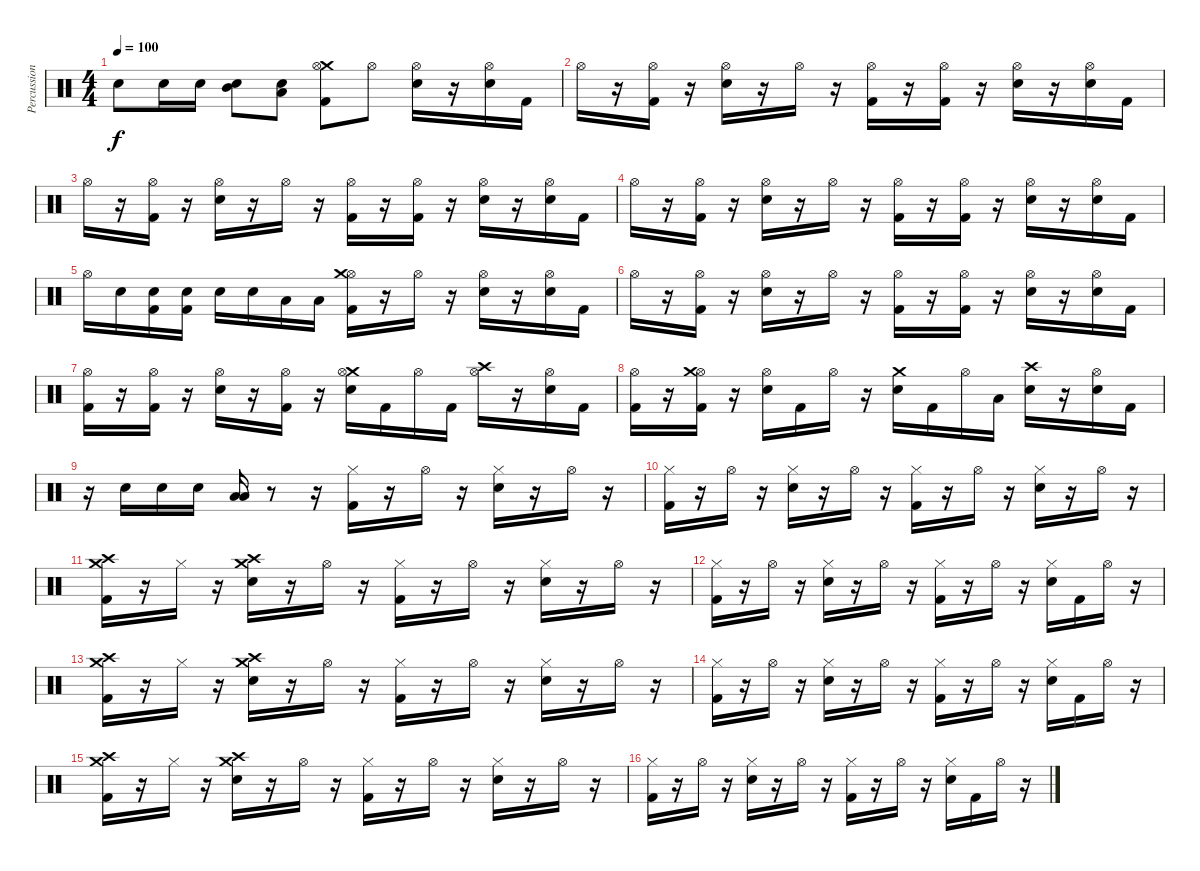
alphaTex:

\track ("Percussion" "Percussion") {instrument percussion}
\staff {score}
\articulation defaults
\ts (4 4)
\tempo 100
\clef neutral
\ks c "Snare (hit) 2".8{dy f} "Snare (hit) 2".16 "Snare (hit) 2".16
("Mid Tom (hit)" "Snare (hit) 2").8 ("Snare (hit) 2" "Low Tom (hit)").8 ("Crash medium (hit)" "Hi-Hat (open)" "Kick (hit) 2").8 "Hi-Hat (open)".8 ("Hi-Hat (open)" "Snare (hit) 2").16 r.16 ("Hi-Hat (open)" "Snare (hit) 2").16 "Kick (hit) 2".16 |
"Hi-Hat (open)".16 r.16 ("Hi-Hat (open)" "Kick (hit) 2").16 r.16 ("Hi-Hat (open)" "Snare (hit) 2").16 r.16 "Hi-Hat (open)".16 r.16 ("Hi-Hat (open)" "Kick (hit) 2").16 r.16 ("Hi-Hat (open)" "Kick (hit) 2").16 r.16 ("Hi-Hat (open)" "Snare (hit) 2").16 r.16 ("Hi-Hat (open)" "Snare (hit) 2").16 "Kick (hit) 2".16 |
"Hi-Hat (open)".16 r.16 ("Hi-Hat (open)" "Kick (hit) 2").16 r.16 ("Hi-Hat (open)" "Snare (hit) 2").16 r.16 "Hi-Hat (open)".16 r.16 ("Hi-Hat (open)" "Kick (hit) 2").16 r.16 ("Hi-Hat (open)" "Kick (hit) 2").16 r.16 ("Hi-Hat (open)" "Snare (hit) 2").16 r.16 ("Hi-Hat (open)" "Snare (hit) 2").16 "Kick (hit) 2".16 |
"Hi-Hat (open)".16 r.16 ("Hi-Hat (open)" "Kick (hit) 2").16 r.16 ("Hi-Hat (open)" "Snare (hit) 2").16 r.16 "Hi-Hat (open)".16 r.16 ("Hi-Hat (open)" "Kick (hit) 2").16 r.16 ("Hi-Hat (open)" "Kick (hit) 2").16 r.16 ("Hi-Hat (open)" "Snare (hit) 2").16 r.16 ("Hi-Hat (open)" "Snare (hit) 2").16 "Kick (hit) 2".16 |
"Hi-Hat (open)".16 "Snare (hit) 2".16 ("Snare (hit) 2" "Kick (hit) 2").16 ("Snare (hit) 2" "Kick (hit) 2").16 "Snare (hit) 2".16 "Snare (hit) 2".16 "Low Tom (hit)".16 "Low Tom (hit)".16 ("Hi-Hat (open)" "Crash medium (hit)" "Kick (hit) 2").16 r.16 "Hi-Hat (open)".16 r.16 ("Hi-Hat (open)" "Snare (hit) 2").16 r.16 ("Hi-Hat (open)" "Snare (hit) 2").16 "Kick (hit) 2".16 |
"Hi-Hat (open)".16 r.16 ("Hi-Hat (open)" "Kick (hit) 2").16 r.16 ("Hi-Hat (open)" "Snare (hit) 2").16 r.16 "Hi-Hat (open)".16 r.16 ("Hi-Hat (open)" "Kick (hit) 2").16 r.16 ("Hi-Hat (open)" "Kick (hit) 2").16 r.16 ("Hi-Hat (open)" "Snare (hit) 2").16 r.16 ("Hi-Hat (open)" "Snare (hit) 2").16 "Kick (hit) 2".16 |
("Hi-Hat (open)" "Kick (hit) 2").16 r.16 ("Hi-Hat (open)" "Kick (hit) 2").16 r.16 ("Hi-Hat (open)" "Snare (hit) 2").16 r.16 ("Hi-Hat (open)" "Kick (hit) 2").16 r.16 ("Crash medium (hit)" "Hi-Hat (open)" "Snare (hit) 2").16 "Kick (hit) 2".16 "Hi-Hat (open)".16 "Kick (hit) 2".16 ("Hi-Hat (open)" "Crash high (hit)").16 r.16 ("Hi-Hat (open)" "Snare (hit) 2").16 "Kick (hit) 2".16 |
("Hi-Hat (open)" "Kick (hit) 2").16 r.16 ("Hi-Hat (open)" "Crash medium (hit)" "Kick (hit) 2").16 r.16 ("Hi-Hat (open)" "Snare (hit) 2").16 "Kick (hit) 2".16 "Hi-Hat (open)".16 r.16 ("Crash medium (hit)" "Snare (hit) 2").16 "Kick (hit) 2".16 "Hi-Hat (open)".16 "Low Tom (hit)".16 ("Crash high (hit)" "Snare (hit) 2").16 r.16 ("Hi-Hat (open)" "Snare (hit) 2").16 "Kick (hit) 2".16 |
r.16 "Snare (hit) 2".16 "Snare (hit) 2".16 "Snare (hit) 2".16 ("Low Tom (hit)" "Low Tom (hit)").16 r.8 r.16 ("Hi-Hat (closed)" "Kick (hit) 2").16 r.16 "Hi-Hat (open)".16 r.16 ("Hi-Hat (closed)" "Snare (hit) 2").16 r.16 "Hi-Hat (open)".16 r.16 |
("Hi-Hat (closed)" "Kick (hit) 2").16 r.16 "Hi-Hat (open)".16 r.16 ("Hi-Hat (closed)" "Snare (hit) 2").16 r.16 "Hi-Hat (open)".16 r.16 ("Hi-Hat (closed)" "Kick (hit) 2").16 r.16 "Hi-Hat (open)".16 r.16 ("Hi-Hat (closed)" "Snare (hit) 2").16 r.16 "Hi-Hat (open)".16 r.16 |
("Crash medium (hit)" "Crash high (hit)" "Kick (hit) 2").16 r.16 "Hi-Hat (closed)".16 r.16 ("Crash medium (hit)" "Crash high (hit)" "Snare (hit) 2").16 r.16 "Hi-Hat (open)".16 r.16 ("Hi-Hat (closed)" "Kick (hit) 2").16 r.16 "Hi-Hat (open)".16 r.16 ("Hi-Hat (closed)" "Snare (hit) 2").16 r.16 "Hi-Hat (open)".16 r.16 |
("Hi-Hat (closed)" "Kick (hit) 2").16 r.16 "Hi-Hat (open)".16 r.16 ("Hi-Hat (closed)" "Snare (hit) 2").16 r.16 "Hi-Hat (open)".16 r.16 ("Hi-Hat (closed)" "Kick (hit) 2").16 r.16 "Hi-Hat (open)".16 r.16 ("Hi-Hat (closed)" "Snare (hit) 2").16 "Kick (hit) 2".16 "Hi-Hat (open)".16 r.16 |
("Crash medium (hit)" "Crash high (hit)" "Kick (hit) 2").16 r.16 "Hi-Hat (closed)".16 r.16 ("Crash medium (hit)" "Crash high (hit)" "Snare (hit) 2").16 r.16 "Hi-Hat (open)".16 r.16 ("Hi-Hat (closed)" "Kick (hit) 2").16 r.16 "Hi-Hat (open)".16 r.16 ("Hi-Hat (closed)" "Snare (hit) 2").16 r.16 "Hi-Hat (open)".16 r.16 |
("Hi-Hat (closed)" "Kick (hit) 2").16 r.16 "Hi-Hat (open)".16 r.16 ("Hi-Hat (closed)" "Snare (hit) 2").16 r.16 "Hi-Hat (open)".16 r.16 ("Hi-Hat (closed)" "Kick (hit) 2").16 r.16 "Hi-Hat (open)".16 r.16 ("Hi-Hat (closed)" "Snare (hit) 2").16 "Kick (hit) 2".16 "Hi-Hat (open)".16 r.16 |
("Crash medium (hit)" "Crash high (hit)" "Kick (hit) 2").16 r.16 "Hi-Hat (closed)".16 r.16 ("Crash medium (hit)" "Crash high (hit)" "Snare (hit) 2").16 r.16 "Hi-Hat (open)".16 r.16 ("Hi-Hat (closed)" "Kick (hit) 2").16 r.16 "Hi-Hat (open)".16 r.16 ("Hi-Hat (closed)" "Snare (hit) 2").16 r.16 "Hi-Hat (open)".16 r.16 |
("Hi-Hat (closed)" "Kick (hit) 2").16 r.16 "Hi-Hat (open)".16 r.16 ("Hi-Hat (closed)" "Snare (hit) 2").16 r.16 "Hi-Hat (open)".16 r.16 ("Hi-Hat (closed)" "Kick (hit) 2").16 r.16 "Hi-Hat (open)".16 r.16 ("Hi-Hat (closed)" "Snare (hit) 2").16 "Kick (hit) 2".16 "Hi-Hat (open)".16 r.16
